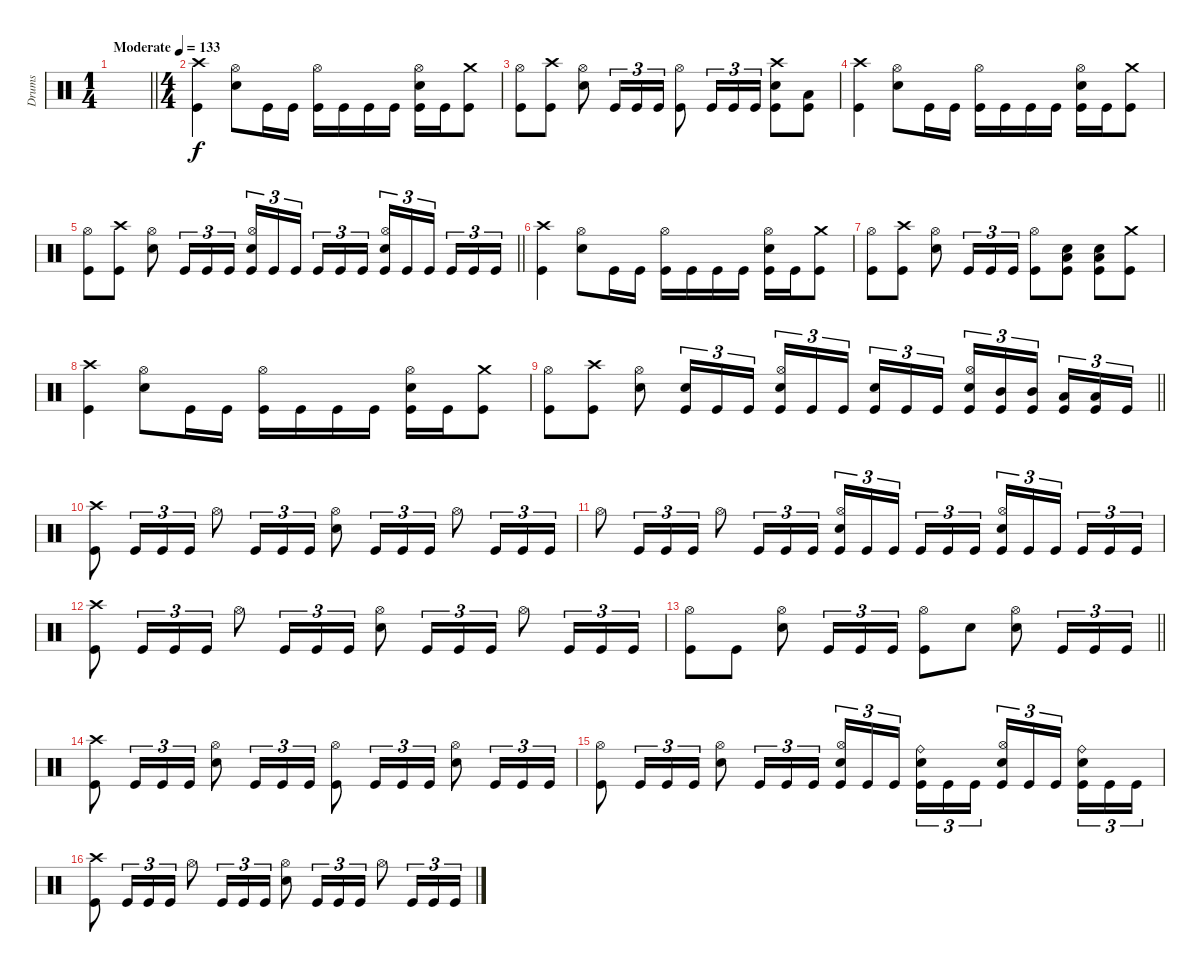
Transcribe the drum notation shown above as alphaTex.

\track ("Drums" "Drums") {instrument percussion}
\staff
\articulation defaults
\ts (1 4)
\tempo (133 "Moderate")
\clef neutral
\barLineRight lightlight
\ks c
|
\ts (4 4)
("Crash high (hit)" "Kick (hit)").4 ("Hi-Hat (open)" "Electric Snare (hit)").8 "Kick (hit)".16 "Kick (hit)".16 ("Hi-Hat (open)" "Kick (hit)").16 "Kick (hit)".16 "Kick (hit)".16 "Kick (hit)".16 ("Hi-Hat (open)" "Electric Snare (hit)" "Kick (hit)").16 "Kick (hit)".16 ("Crash medium (hit)" "Kick (hit)").8 |
("Hi-Hat (open)" "Kick (hit)").8 ("Crash high (hit)" "Kick (hit)").8 ("Hi-Hat (open)" "Electric Snare (hit)").8 "Kick (hit)".16{tu (3 2)} "Kick (hit)".16{tu (3 2)} "Kick (hit)".16{tu (3 2)} ("Hi-Hat (open)" "Kick (hit)").8 "Kick (hit)".16{tu (3 2)} "Kick (hit)".16{tu (3 2)} "Kick (hit)".16{tu (3 2)} ("Crash high (hit)" "Electric Snare (hit)" "Kick (hit)").8 ("Low Floor Tom (hit)" "Kick (hit)").8 |
("Crash high (hit)" "Kick (hit)").4 ("Hi-Hat (open)" "Electric Snare (hit)").8 "Kick (hit)".16 "Kick (hit)".16 ("Hi-Hat (open)" "Kick (hit)").16 "Kick (hit)".16 "Kick (hit)".16 "Kick (hit)".16 ("Hi-Hat (open)" "Electric Snare (hit)" "Kick (hit)").16 "Kick (hit)".16 ("Crash medium (hit)" "Kick (hit)").8 |
\barLineRight lightlight
("Hi-Hat (open)" "Kick (hit)").8 ("Crash high (hit)" "Kick (hit)").8 ("Hi-Hat (open)" "Electric Snare (hit)").8 "Kick (hit)".16{tu (3 2)} "Kick (hit)".16{tu (3 2)} "Kick (hit)".16{tu (3 2)} ("Hi-Hat (open)" "Electric Snare (hit)" "Kick (hit)").16{tu (3 2)} "Kick (hit)".16{tu (3 2)} "Kick (hit)".16{tu (3 2) beam splitsecondary} "Kick (hit)".16{tu (3 2)} "Kick (hit)".16{tu (3 2)} "Kick (hit)".16{tu (3 2)} ("Hi-Hat (open)" "Electric Snare (hit)" "Kick (hit)").16{tu (3 2)} "Kick (hit)".16{tu (3 2)} "Kick (hit)".16{tu (3 2) beam splitsecondary} "Kick (hit)".16{tu (3 2)} "Kick (hit)".16{tu (3 2)} "Kick (hit)".16{tu (3 2)} |
("Crash high (hit)" "Kick (hit)").4 ("Hi-Hat (open)" "Electric Snare (hit)").8 "Kick (hit)".16 "Kick (hit)".16 ("Hi-Hat (open)" "Kick (hit)").16 "Kick (hit)".16 "Kick (hit)".16 "Kick (hit)".16 ("Hi-Hat (open)" "Electric Snare (hit)" "Kick (hit)").16 "Kick (hit)".16 ("Crash medium (hit)" "Kick (hit)").8 |
("Hi-Hat (open)" "Kick (hit)").8 ("Crash high (hit)" "Kick (hit)").8 ("Hi-Hat (open)" "Electric Snare (hit)").8 "Kick (hit)".16{tu (3 2)} "Kick (hit)".16{tu (3 2)} "Kick (hit)".16{tu (3 2)} ("Hi-Hat (open)" "Kick (hit)").8 ("Low Floor Tom (hit)" "Electric Snare (hit)" "Kick (hit)").8 ("Low Floor Tom (hit)" "Electric Snare (hit)" "Kick (hit)").8 ("Crash medium (hit)" "Kick (hit)").8 |
("Crash high (hit)" "Kick (hit)").4 ("Hi-Hat (open)" "Electric Snare (hit)").8 "Kick (hit)".16 "Kick (hit)".16 ("Hi-Hat (open)" "Kick (hit)").16 "Kick (hit)".16 "Kick (hit)".16 "Kick (hit)".16 ("Hi-Hat (open)" "Electric Snare (hit)" "Kick (hit)").16 "Kick (hit)".16 ("Crash medium (hit)" "Kick (hit)").8 |
\barLineRight lightlight
("Hi-Hat (open)" "Kick (hit)").8 ("Crash high (hit)" "Kick (hit)").8 ("Hi-Hat (open)" "Electric Snare (hit)").8 ("Electric Snare (hit)" "Kick (hit)").16{tu (3 2)} "Kick (hit)".16{tu (3 2)} "Kick (hit)".16{tu (3 2)} ("Hi-Hat (open)" "Electric Snare (hit)" "Kick (hit)").16{tu (3 2)} "Kick (hit)".16{tu (3 2)} "Kick (hit)".16{tu (3 2) beam splitsecondary} ("Electric Snare (hit)" "Kick (hit)").16{tu (3 2)} "Kick (hit)".16{tu (3 2)} "Kick (hit)".16{tu (3 2)} ("Hi-Hat (open)" "Electric Snare (hit)" "Kick (hit)").16{tu (3 2)} ("Mid Tom (hit)" "Kick (hit)").16{tu (3 2)} ("Mid Tom (hit)" "Kick (hit)").16{tu (3 2) beam splitsecondary} ("Low Tom (hit)" "Kick (hit)").16{tu (3 2)} ("Low Tom (hit)" "Kick (hit)").16{tu (3 2)} "Kick (hit)".16{tu (3 2)} |
\section ("" "")
("Crash high (hit)" "Kick (hit)").8 "Kick (hit)".16{tu (3 2)} "Kick (hit)".16{tu (3 2)} "Kick (hit)".16{tu (3 2)} "Hi-Hat (open)".8 "Kick (hit)".16{tu (3 2)} "Kick (hit)".16{tu (3 2)} "Kick (hit)".16{tu (3 2)} ("Hi-Hat (open)" "Electric Snare (hit)").8 "Kick (hit)".16{tu (3 2)} "Kick (hit)".16{tu (3 2)} "Kick (hit)".16{tu (3 2)} "Hi-Hat (open)".8 "Kick (hit)".16{tu (3 2)} "Kick (hit)".16{tu (3 2)} "Kick (hit)".16{tu (3 2)} |
"Hi-Hat (open)".8 "Kick (hit)".16{tu (3 2)} "Kick (hit)".16{tu (3 2)} "Kick (hit)".16{tu (3 2)} "Hi-Hat (open)".8 "Kick (hit)".16{tu (3 2)} "Kick (hit)".16{tu (3 2)} "Kick (hit)".16{tu (3 2)} ("Hi-Hat (open)" "Electric Snare (hit)" "Kick (hit)").16{tu (3 2)} "Kick (hit)".16{tu (3 2)} "Kick (hit)".16{tu (3 2) beam splitsecondary} "Kick (hit)".16{tu (3 2)} "Kick (hit)".16{tu (3 2)} "Kick (hit)".16{tu (3 2)} ("Hi-Hat (open)" "Electric Snare (hit)" "Kick (hit)").16{tu (3 2)} "Kick (hit)".16{tu (3 2)} "Kick (hit)".16{tu (3 2) beam splitsecondary} "Kick (hit)".16{tu (3 2)} "Kick (hit)".16{tu (3 2)} "Kick (hit)".16{tu (3 2)} |
("Crash high (hit)" "Kick (hit)").8 "Kick (hit)".16{tu (3 2)} "Kick (hit)".16{tu (3 2)} "Kick (hit)".16{tu (3 2)} "Hi-Hat (open)".8 "Kick (hit)".16{tu (3 2)} "Kick (hit)".16{tu (3 2)} "Kick (hit)".16{tu (3 2)} ("Hi-Hat (open)" "Electric Snare (hit)").8 "Kick (hit)".16{tu (3 2)} "Kick (hit)".16{tu (3 2)} "Kick (hit)".16{tu (3 2)} "Hi-Hat (open)".8 "Kick (hit)".16{tu (3 2)} "Kick (hit)".16{tu (3 2)} "Kick (hit)".16{tu (3 2)} |
\barLineRight lightlight
("Hi-Hat (open)" "Kick (hit)").8 "Kick (hit)".8 ("Hi-Hat (open)" "Electric Snare (hit)").8 "Kick (hit)".16{tu (3 2)} "Kick (hit)".16{tu (3 2)} "Kick (hit)".16{tu (3 2)} ("Hi-Hat (open)" "Kick (hit)").8 "Electric Snare (hit)".8 ("Hi-Hat (open)" "Electric Snare (hit)").8 "Kick (hit)".16{tu (3 2)} "Kick (hit)".16{tu (3 2)} "Kick (hit)".16{tu (3 2)} |
("Crash high (hit)" "Kick (hit)").8 "Kick (hit)".16{tu (3 2)} "Kick (hit)".16{tu (3 2)} "Kick (hit)".16{tu (3 2)} ("Hi-Hat (open)" "Electric Snare (hit)").8 "Kick (hit)".16{tu (3 2)} "Kick (hit)".16{tu (3 2)} "Kick (hit)".16{tu (3 2)} ("Hi-Hat (open)" "Kick (hit)").8 "Kick (hit)".16{tu (3 2)} "Kick (hit)".16{tu (3 2)} "Kick (hit)".16{tu (3 2)} ("Hi-Hat (open)" "Electric Snare (hit)").8 "Kick (hit)".16{tu (3 2)} "Kick (hit)".16{tu (3 2)} "Kick (hit)".16{tu (3 2)} |
("Hi-Hat (open)" "Kick (hit)").8 "Kick (hit)".16{tu (3 2)} "Kick (hit)".16{tu (3 2)} "Kick (hit)".16{tu (3 2)} ("Hi-Hat (open)" "Electric Snare (hit)").8 "Kick (hit)".16{tu (3 2)} "Kick (hit)".16{tu (3 2)} "Kick (hit)".16{tu (3 2)} ("Hi-Hat (open)" "Electric Snare (hit)" "Kick (hit)").16{tu (3 2)} "Kick (hit)".16{tu (3 2)} "Kick (hit)".16{tu (3 2) beam splitsecondary} ("Ride (bell)" "Electric Snare (hit)" "Kick (hit)").16{tu (3 2)} "Kick (hit)".16{tu (3 2)} "Kick (hit)".16{tu (3 2)} ("Hi-Hat (open)" "Electric Snare (hit)" "Kick (hit)").16{tu (3 2)} "Kick (hit)".16{tu (3 2)} "Kick (hit)".16{tu (3 2) beam splitsecondary} ("Ride (bell)" "Electric Snare (hit)" "Kick (hit)").16{tu (3 2)} "Kick (hit)".16{tu (3 2)} "Kick (hit)".16{tu (3 2)} |
("Crash high (hit)" "Kick (hit)").8 "Kick (hit)".16{tu (3 2)} "Kick (hit)".16{tu (3 2)} "Kick (hit)".16{tu (3 2)} "Hi-Hat (open)".8 "Kick (hit)".16{tu (3 2)} "Kick (hit)".16{tu (3 2)} "Kick (hit)".16{tu (3 2)} ("Hi-Hat (open)" "Electric Snare (hit)").8 "Kick (hit)".16{tu (3 2)} "Kick (hit)".16{tu (3 2)} "Kick (hit)".16{tu (3 2)} "Hi-Hat (open)".8 "Kick (hit)".16{tu (3 2)} "Kick (hit)".16{tu (3 2)} "Kick (hit)".16{tu (3 2)}
